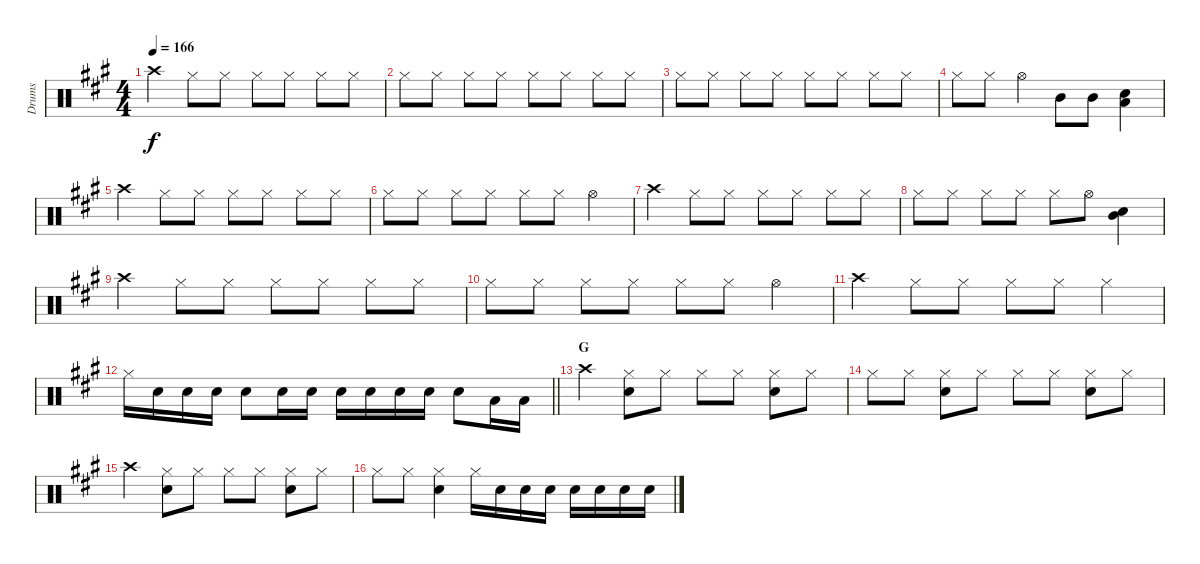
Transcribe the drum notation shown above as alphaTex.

\track ("Drums" "Drums") {instrument percussion}
\staff {score}
\articulation defaults
\ts (4 4)
\tempo 166
\clef neutral
\ks a "Crash high (hit)".4{dy f} "Hi-Hat (closed)".8 "Hi-Hat (closed)".8 "Hi-Hat (closed)".8 "Hi-Hat (closed)".8 "Hi-Hat (closed)".8 "Hi-Hat (closed)".8
|
"Hi-Hat (closed)".8 "Hi-Hat (closed)".8 "Hi-Hat (closed)".8 "Hi-Hat (closed)".8 "Hi-Hat (closed)".8 "Hi-Hat (closed)".8 "Hi-Hat (closed)".8 "Hi-Hat (closed)".8 |
"Hi-Hat (closed)".8 "Hi-Hat (closed)".8 "Hi-Hat (closed)".8 "Hi-Hat (closed)".8 "Hi-Hat (closed)".8 "Hi-Hat (closed)".8 "Hi-Hat (closed)".8 "Hi-Hat (closed)".8 |
"Hi-Hat (closed)".8 "Hi-Hat (closed)".8 "Hi-Hat (open)".4 "Mid Tom (hit)".8 "Mid Tom (hit)".8 ("Snare (hit) 2" "Low Tom (hit)").4 |
"Crash high (hit)".4 "Hi-Hat (closed)".8 "Hi-Hat (closed)".8 "Hi-Hat (closed)".8 "Hi-Hat (closed)".8 "Hi-Hat (closed)".8 "Hi-Hat (closed)".8 |
"Hi-Hat (closed)".8 "Hi-Hat (closed)".8 "Hi-Hat (closed)".8 "Hi-Hat (closed)".8 "Hi-Hat (closed)".8 "Hi-Hat (closed)".8 "Hi-Hat (open)".4 |
"Crash high (hit)".4 "Hi-Hat (closed)".8 "Hi-Hat (closed)".8 "Hi-Hat (closed)".8 "Hi-Hat (closed)".8 "Hi-Hat (closed)".8 "Hi-Hat (closed)".8 |
"Hi-Hat (closed)".8 "Hi-Hat (closed)".8 "Hi-Hat (closed)".8 "Hi-Hat (closed)".8 "Hi-Hat (closed)".8 "Hi-Hat (open)".8 ("Snare (hit) 2" "Mid Tom (hit)").4 |
"Crash high (hit)".4 "Hi-Hat (closed)".8 "Hi-Hat (closed)".8 "Hi-Hat (closed)".8 "Hi-Hat (closed)".8 "Hi-Hat (closed)".8 "Hi-Hat (closed)".8 |
"Hi-Hat (closed)".8 "Hi-Hat (closed)".8 "Hi-Hat (closed)".8 "Hi-Hat (closed)".8 "Hi-Hat (closed)".8 "Hi-Hat (closed)".8 "Hi-Hat (open)".4 |
"Crash high (hit)".4 "Hi-Hat (closed)".8 "Hi-Hat (closed)".8 "Hi-Hat (closed)".8 "Hi-Hat (closed)".8 "Hi-Hat (closed)".4 |
\barLineRight lightlight "Hi-Hat (closed)".16 "Snare (hit) 2".16 "Snare (hit) 2".16 "Snare (hit) 2".16 "Snare (hit) 2".8 "Snare (hit) 2".16 "Snare (hit) 2".16 "Snare (hit) 2".16 "Snare (hit) 2".16 "Snare (hit) 2".16 "Snare (hit) 2".16 "Snare (hit) 2".8 "Low Tom (hit)".16 "Low Tom (hit)".16
|
\section ("" "G")
"Crash high (hit)".4 ("Hi-Hat (closed)" "Snare (hit) 2").8 "Hi-Hat (closed)".8 "Hi-Hat (closed)".8 "Hi-Hat (closed)".8 ("Hi-Hat (closed)" "Snare (hit) 2").8 "Hi-Hat (closed)".8 |
"Hi-Hat (closed)".8 "Hi-Hat (closed)".8 ("Hi-Hat (closed)" "Snare (hit) 2").8 "Hi-Hat (closed)".8 "Hi-Hat (closed)".8 "Hi-Hat (closed)".8 ("Hi-Hat (closed)" "Snare (hit) 2").8 "Hi-Hat (closed)".8 |
"Crash high (hit)".4 ("Hi-Hat (closed)" "Snare (hit) 2").8 "Hi-Hat (closed)".8 "Hi-Hat (closed)".8 "Hi-Hat (closed)".8 ("Hi-Hat (closed)" "Snare (hit) 2").8 "Hi-Hat (closed)".8 |
"Hi-Hat (closed)".8 "Hi-Hat (closed)".8 ("Hi-Hat (closed)" "Snare (hit) 2").4 "Hi-Hat (closed)".16 "Snare (hit) 2".16 "Snare (hit) 2".16 "Snare (hit) 2".16 "Snare (hit) 2".16 "Snare (hit) 2".16 "Snare (hit) 2".16 "Snare (hit) 2".16
